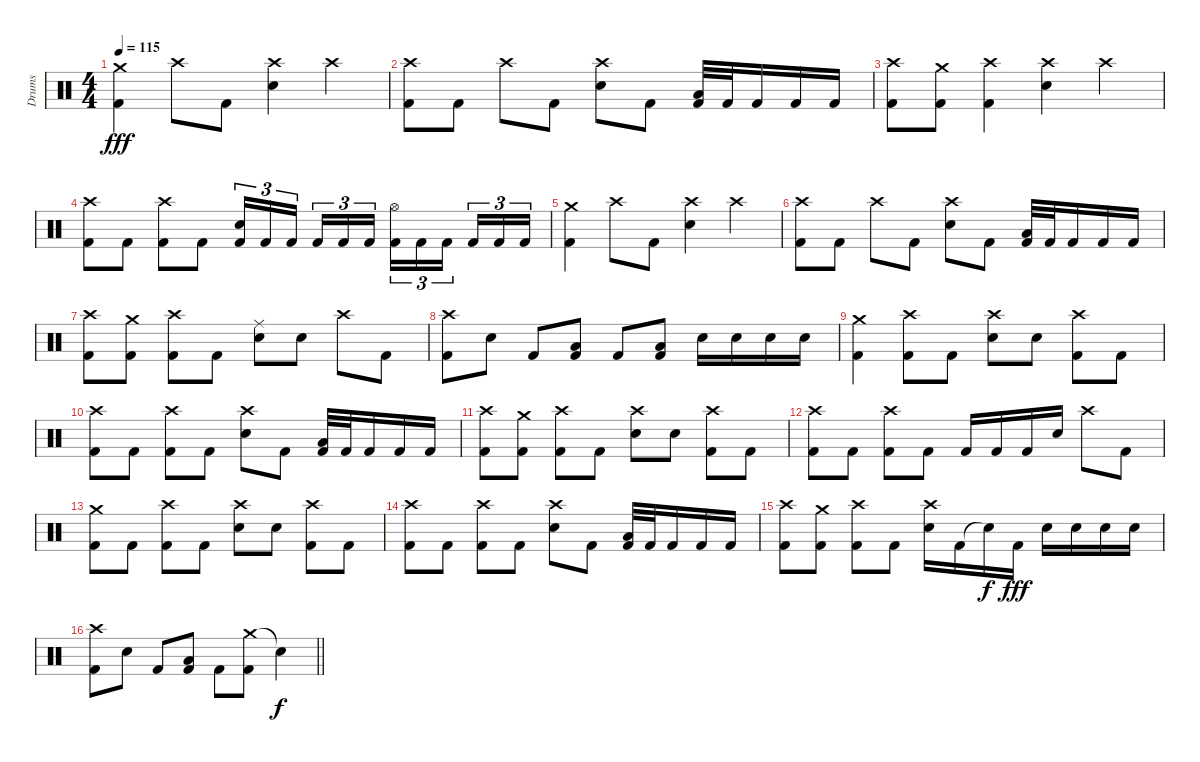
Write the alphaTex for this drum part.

\track ("Drums" "Drums") {instrument percussion}
\staff {score}
\articulation defaults
\ts (4 4)
\tempo 115
\clef neutral
\ks c
("Crash medium (hit)" "Kick (hit) 2").4{dy fff} "Crash high (hit)".8 "Kick (hit) 2".8 ("Crash high (hit)" "Snare (hit) 2").4 "Crash high (hit)".4 |
("Crash high (hit)" "Kick (hit) 2").8 "Kick (hit) 2".8 "Crash high (hit)".8 "Kick (hit) 2".8 ("Crash high (hit)" "Snare (hit) 2").8 "Kick (hit) 2".8 ("Low Tom (hit)" "Kick (hit) 2").32 "Kick (hit) 2".32 "Kick (hit) 2".16 "Kick (hit) 2".16 "Kick (hit) 2".16 |
("Crash high (hit)" "Kick (hit) 2").8 ("Crash medium (hit)" "Kick (hit) 2").8 ("Crash high (hit)" "Kick (hit) 2").4 ("Crash high (hit)" "Snare (hit) 2").4 "Crash high (hit)".4 |
("Crash high (hit)" "Kick (hit) 2").8 "Kick (hit) 2".8 ("Crash high (hit)" "Kick (hit) 2").8 "Kick (hit) 2".8 ("Snare (hit) 2" "Kick (hit) 2").16{tu (3 2)} "Kick (hit) 2".16{tu (3 2)} "Kick (hit) 2".16{tu (3 2) beam splitsecondary} "Kick (hit) 2".16{tu (3 2)} "Kick (hit) 2".16{tu (3 2)} "Kick (hit) 2".16{tu (3 2)} ("Hi-Hat (open)" "Kick (hit) 2").16{tu (3 2)} "Kick (hit) 2".16{tu (3 2)} "Kick (hit) 2".16{tu (3 2) beam splitsecondary} "Kick (hit) 2".16{tu (3 2)} "Kick (hit) 2".16{tu (3 2)} "Kick (hit) 2".16{tu (3 2)} |
("Crash medium (hit)" "Kick (hit) 2").4 "Crash high (hit)".8 "Kick (hit) 2".8 ("Crash high (hit)" "Snare (hit) 2").4 "Crash high (hit)".4 |
("Crash high (hit)" "Kick (hit) 2").8 "Kick (hit) 2".8 "Crash high (hit)".8 "Kick (hit) 2".8 ("Crash high (hit)" "Snare (hit) 2").8 "Kick (hit) 2".8 ("Low Tom (hit)" "Kick (hit) 2").32 "Kick (hit) 2".32 "Kick (hit) 2".16 "Kick (hit) 2".16 "Kick (hit) 2".16 |
("Crash high (hit)" "Kick (hit) 2").8 ("Crash medium (hit)" "Kick (hit) 2").8 ("Crash high (hit)" "Kick (hit) 2").8 "Kick (hit) 2".8 ("Ride (middle)" "Snare (hit) 2").8 "Snare (hit) 2".8 "Crash high (hit)".8 "Kick (hit) 2".8 |
("Crash high (hit)" "Kick (hit) 2").8 "Snare (hit) 2".8 "Kick (hit) 2".8 ("Low Tom (hit)" "Kick (hit) 2").8 "Kick (hit) 2".8 ("Low Tom (hit)" "Kick (hit) 2").8 "Snare (hit) 2".16 "Snare (hit) 2".16 "Snare (hit) 2".16 "Snare (hit) 2".16 |
("Crash medium (hit)" "Kick (hit) 2").4 ("Crash high (hit)" "Kick (hit) 2").8 "Kick (hit) 2".8 ("Crash high (hit)" "Snare (hit) 2").8 "Snare (hit) 2".8 ("Crash high (hit)" "Kick (hit) 2").8 "Kick (hit) 2".8 |
("Crash high (hit)" "Kick (hit) 2").8 "Kick (hit) 2".8 ("Crash high (hit)" "Kick (hit) 2").8 "Kick (hit) 2".8 ("Crash high (hit)" "Snare (hit) 2").8 "Kick (hit) 2".8 ("Low Tom (hit)" "Kick (hit) 2").32 "Kick (hit) 2".32 "Kick (hit) 2".16 "Kick (hit) 2".16 "Kick (hit) 2".16 |
("Crash high (hit)" "Kick (hit) 2").8 ("Crash medium (hit)" "Kick (hit) 2").8 ("Crash high (hit)" "Kick (hit) 2").8 "Kick (hit) 2".8 ("Crash high (hit)" "Snare (hit) 2").8 "Snare (hit) 2".8 ("Crash high (hit)" "Kick (hit) 2").8 "Kick (hit) 2".8 |
("Crash high (hit)" "Kick (hit) 2").8 "Kick (hit) 2".8 ("Crash high (hit)" "Kick (hit) 2").8 "Kick (hit) 2".8 "Kick (hit) 2".16 "Kick (hit) 2".16 "Kick (hit) 2".16 "Snare (hit) 2".16 "Crash high (hit)".8 "Kick (hit) 2".8 |
("Crash medium (hit)" "Kick (hit) 2").8 "Kick (hit) 2".8 ("Crash high (hit)" "Kick (hit) 2").8 "Kick (hit) 2".8 ("Crash high (hit)" "Snare (hit) 2").8 "Snare (hit) 2".8 ("Crash high (hit)" "Kick (hit) 2").8 "Kick (hit) 2".8 |
("Crash high (hit)" "Kick (hit) 2").8 "Kick (hit) 2".8 ("Crash high (hit)" "Kick (hit) 2").8 "Kick (hit) 2".8 ("Crash high (hit)" "Snare (hit) 2").8 "Kick (hit) 2".8 ("Low Tom (hit)" "Kick (hit) 2").32 "Kick (hit) 2".32 "Kick (hit) 2".16 "Kick (hit) 2".16 "Kick (hit) 2".16 |
("Crash high (hit)" "Kick (hit) 2").8 ("Crash medium (hit)" "Kick (hit) 2").8 ("Crash high (hit)" "Kick (hit) 2").8 "Kick (hit) 2".8 ("Crash high (hit)" "Snare (hit) 2").16 "Kick (hit) 2".16 "Snare (hit)"{t}.16{dy f} "Kick (hit) 2".16{dy fff} "Snare (hit) 2".16 "Snare (hit) 2".16 "Snare (hit) 2".16 "Snare (hit) 2".16 |
\barLineRight lightlight
("Crash high (hit)" "Kick (hit) 2").8 "Snare (hit) 2".8 "Kick (hit) 2".8 ("Low Tom (hit)" "Kick (hit) 2").8 "Kick (hit) 2".8 ("Crash medium (hit)" "Kick (hit) 2").8 "Snare (hit)"{t}.4{dy f}
